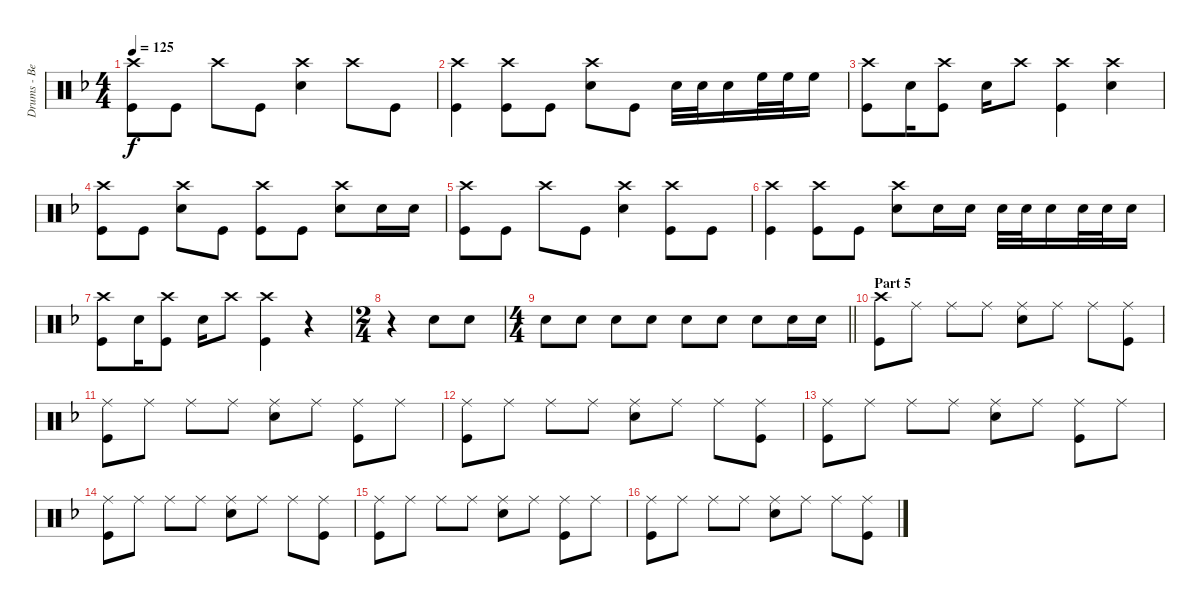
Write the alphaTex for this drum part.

\track ("Drums - Ben Johnston" "Drums - Be") {instrument percussion}
\staff {score}
\articulation defaults
\ts (4 4)
\tempo 125
\clef neutral
\ks dminor
("Crash high (hit)" "Kick (hit)").8{dy f} "Kick (hit)".8 "Crash high (hit)".8 "Kick (hit)".8 ("Crash high (hit)" "Snare (hit) 2").4 "Crash high (hit)".8 "Kick (hit)".8 |
("Crash high (hit)" "Kick (hit)").4 ("Crash high (hit)" "Kick (hit)").8 "Kick (hit)".8 ("Crash high (hit)" "Snare (hit) 2").8 "Kick (hit)".8 "Snare (hit) 2".32 "Snare (hit) 2".32 "Snare (hit) 2".16 "High Floor Tom (hit)".32 "High Floor Tom (hit)".32 "High Floor Tom (hit)".16 |
("Crash high (hit)" "Kick (hit)").8 "Snare (hit) 2".16 ("Crash high (hit)" "Kick (hit)").8 "Snare (hit) 2".16 "Crash high (hit)".8 ("Crash high (hit)" "Kick (hit)").4 ("Crash high (hit)" "Snare (hit) 2").4 |
("Crash high (hit)" "Kick (hit)").8 "Kick (hit)".8 ("Crash high (hit)" "Snare (hit) 2").8 "Kick (hit)".8 ("Crash high (hit)" "Kick (hit)").8 "Kick (hit)".8 ("Crash high (hit)" "Snare (hit) 2").8 "Snare (hit) 2".16 "Snare (hit) 2".16 |
("Crash high (hit)" "Kick (hit)").8 "Kick (hit)".8 "Crash high (hit)".8 "Kick (hit)".8 ("Crash high (hit)" "Snare (hit) 2").4 ("Crash high (hit)" "Kick (hit)").8 "Kick (hit)".8 |
("Crash high (hit)" "Kick (hit)").4 ("Crash high (hit)" "Kick (hit)").8 "Kick (hit)".8 ("Crash high (hit)" "Snare (hit) 2").8 "Snare (hit) 2".16 "Snare (hit) 2".16 "Snare (hit) 2".32 "Snare (hit) 2".32 "Snare (hit) 2".16 "Snare (hit) 2".32 "Snare (hit) 2".32 "Snare (hit) 2".16 |
("Crash high (hit)" "Kick (hit)").8 "Snare (hit) 2".16 ("Crash high (hit)" "Kick (hit)").8 "Snare (hit) 2".16 "Crash high (hit)".8 ("Crash high (hit)" "Kick (hit)").4 r.4 |
\ts (2 4)
r.4 "Snare (hit) 2".8{volume 5} "Snare (hit) 2".8{volume 6} |
\ts (4 4)
\barLineRight lightlight "Snare (hit) 2".8{volume 7} "Snare (hit) 2".8{volume 8} "Snare (hit) 2".8{volume 9} "Snare (hit) 2".8{volume 10} "Snare (hit) 2".8{volume 11} "Snare (hit) 2".8{volume 12} "Snare (hit) 2".8{volume 13} "Snare (hit) 2".16{volume 14} "Snare (hit) 2".16
|
\section ("" "Part 5")
("Crash high (hit)" "Kick (hit)").8 "Ride (middle)".8 "Ride (middle)".8 "Ride (middle)".8 ("Ride (middle)" "Snare (hit) 2").8 "Ride (middle)".8 "Ride (middle)".8 ("Ride (middle)" "Kick (hit)").8 |
("Ride (middle)" "Kick (hit)").8 "Ride (middle)".8 "Ride (middle)".8 "Ride (middle)".8 ("Ride (middle)" "Snare (hit) 2").8 "Ride (middle)".8 ("Ride (middle)" "Kick (hit)").8 "Ride (middle)".8 |
("Ride (middle)" "Kick (hit)").8 "Ride (middle)".8 "Ride (middle)".8 "Ride (middle)".8 ("Ride (middle)" "Snare (hit) 2").8 "Ride (middle)".8 "Ride (middle)".8 ("Ride (middle)" "Kick (hit)").8 |
("Ride (middle)" "Kick (hit)").8 "Ride (middle)".8 "Ride (middle)".8 "Ride (middle)".8 ("Ride (middle)" "Snare (hit) 2").8 "Ride (middle)".8 ("Ride (middle)" "Kick (hit)").8 "Ride (middle)".8 |
("Ride (middle)" "Kick (hit)").8 "Ride (middle)".8 "Ride (middle)".8 "Ride (middle)".8 ("Ride (middle)" "Snare (hit) 2").8 "Ride (middle)".8 "Ride (middle)".8 ("Ride (middle)" "Kick (hit)").8 |
("Ride (middle)" "Kick (hit)").8 "Ride (middle)".8 "Ride (middle)".8 "Ride (middle)".8 ("Ride (middle)" "Snare (hit) 2").8 "Ride (middle)".8 ("Ride (middle)" "Kick (hit)").8 "Ride (middle)".8 |
("Ride (middle)" "Kick (hit)").8 "Ride (middle)".8 "Ride (middle)".8 "Ride (middle)".8 ("Ride (middle)" "Snare (hit) 2").8 "Ride (middle)".8 "Ride (middle)".8 ("Ride (middle)" "Kick (hit)").8
